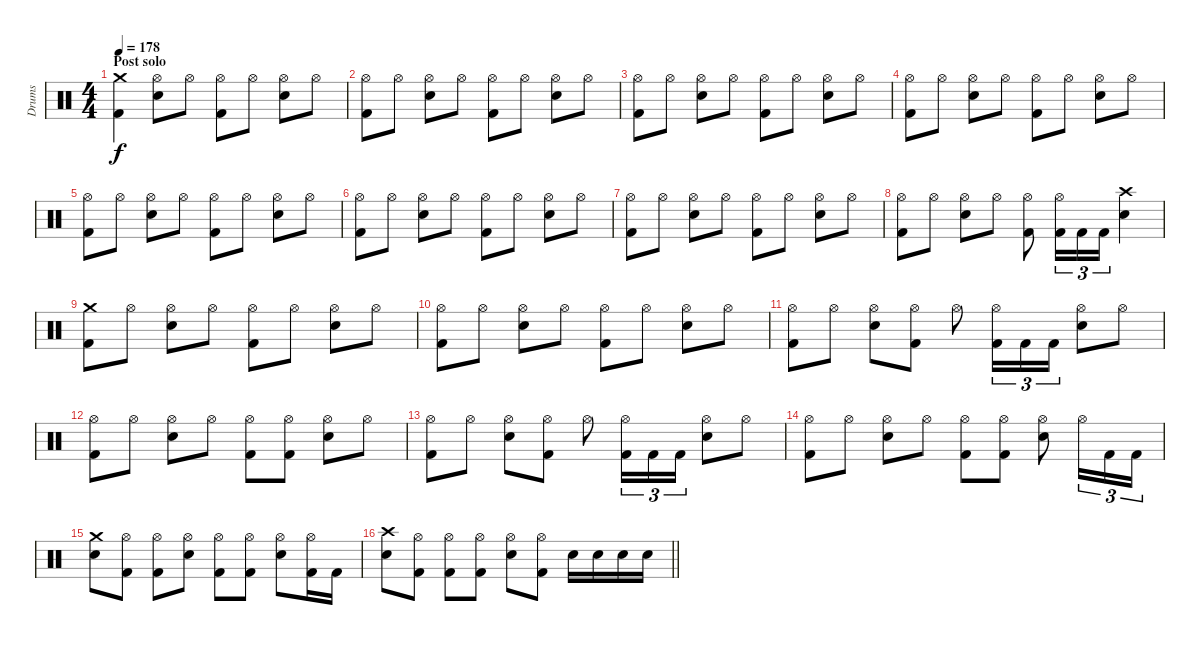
\track ("Drums" "Drums") {instrument percussion}
\staff {score}
\articulation defaults
\ts (4 4)
\section ("" "Post solo")
\tempo 178
\clef neutral
\ks c
("Crash medium (hit)" "Kick (hit) 2").4{dy f} ("Hi-Hat (open)" "Electric Snare (hit)").8 "Hi-Hat (open)".8 ("Hi-Hat (open)" "Kick (hit) 2").8 "Hi-Hat (open)".8 ("Hi-Hat (open)" "Electric Snare (hit)").8 "Hi-Hat (open)".8 |
("Hi-Hat (open)" "Kick (hit) 2").8 "Hi-Hat (open)".8 ("Hi-Hat (open)" "Electric Snare (hit)").8 "Hi-Hat (open)".8 ("Hi-Hat (open)" "Kick (hit) 2").8 "Hi-Hat (open)".8 ("Hi-Hat (open)" "Electric Snare (hit)").8 "Hi-Hat (open)".8 |
("Hi-Hat (open)" "Kick (hit) 2").8 "Hi-Hat (open)".8 ("Hi-Hat (open)" "Electric Snare (hit)").8 "Hi-Hat (open)".8 ("Hi-Hat (open)" "Kick (hit) 2").8 "Hi-Hat (open)".8 ("Hi-Hat (open)" "Electric Snare (hit)").8 "Hi-Hat (open)".8 |
("Hi-Hat (open)" "Kick (hit) 2").8 "Hi-Hat (open)".8 ("Hi-Hat (open)" "Electric Snare (hit)").8 "Hi-Hat (open)".8 ("Hi-Hat (open)" "Kick (hit) 2").8 "Hi-Hat (open)".8 ("Hi-Hat (open)" "Electric Snare (hit)").8 "Hi-Hat (open)".8 |
("Hi-Hat (open)" "Kick (hit) 2").8 "Hi-Hat (open)".8 ("Hi-Hat (open)" "Electric Snare (hit)").8 "Hi-Hat (open)".8 ("Hi-Hat (open)" "Kick (hit) 2").8 "Hi-Hat (open)".8 ("Hi-Hat (open)" "Electric Snare (hit)").8 "Hi-Hat (open)".8 |
("Hi-Hat (open)" "Kick (hit) 2").8 "Hi-Hat (open)".8 ("Hi-Hat (open)" "Electric Snare (hit)").8 "Hi-Hat (open)".8 ("Hi-Hat (open)" "Kick (hit) 2").8 "Hi-Hat (open)".8 ("Hi-Hat (open)" "Electric Snare (hit)").8 "Hi-Hat (open)".8 |
("Hi-Hat (open)" "Kick (hit) 2").8 "Hi-Hat (open)".8 ("Hi-Hat (open)" "Electric Snare (hit)").8 "Hi-Hat (open)".8 ("Hi-Hat (open)" "Kick (hit) 2").8 "Hi-Hat (open)".8 ("Hi-Hat (open)" "Electric Snare (hit)").8 "Hi-Hat (open)".8 |
("Hi-Hat (open)" "Kick (hit) 2").8 "Hi-Hat (open)".8 ("Hi-Hat (open)" "Electric Snare (hit)").8 "Hi-Hat (open)".8 ("Hi-Hat (open)" "Kick (hit) 2").8 ("Hi-Hat (open)" "Kick (hit) 2").16{tu (3 2)} "Kick (hit) 2".16{tu (3 2)} "Kick (hit) 2".16{tu (3 2)} ("Crash high (hit)" "Electric Snare (hit)").4 |
("Crash medium (hit)" "Kick (hit) 2").8 "Hi-Hat (open)".8 ("Hi-Hat (open)" "Electric Snare (hit)").8 "Hi-Hat (open)".8 ("Hi-Hat (open)" "Kick (hit) 2").8 "Hi-Hat (open)".8 ("Hi-Hat (open)" "Electric Snare (hit)").8 "Hi-Hat (open)".8 |
("Hi-Hat (open)" "Kick (hit) 2").8 "Hi-Hat (open)".8 ("Hi-Hat (open)" "Electric Snare (hit)").8 "Hi-Hat (open)".8 ("Hi-Hat (open)" "Kick (hit) 2").8 "Hi-Hat (open)".8 ("Hi-Hat (open)" "Electric Snare (hit)").8 "Hi-Hat (open)".8 |
("Hi-Hat (open)" "Kick (hit) 2").8 "Hi-Hat (open)".8 ("Hi-Hat (open)" "Electric Snare (hit)").8 ("Hi-Hat (open)" "Kick (hit) 2").8 "Hi-Hat (open)".8 ("Hi-Hat (open)" "Kick (hit) 2").16{tu (3 2)} "Kick (hit) 2".16{tu (3 2)} "Kick (hit) 2".16{tu (3 2)} ("Hi-Hat (open)" "Electric Snare (hit)").8 "Hi-Hat (open)".8 |
("Hi-Hat (open)" "Kick (hit) 2").8 "Hi-Hat (open)".8 ("Hi-Hat (open)" "Electric Snare (hit)").8 "Hi-Hat (open)".8 ("Hi-Hat (open)" "Kick (hit) 2").8 ("Hi-Hat (open)" "Kick (hit) 2").8 ("Hi-Hat (open)" "Electric Snare (hit)").8 "Hi-Hat (open)".8 |
("Hi-Hat (open)" "Kick (hit) 2").8 "Hi-Hat (open)".8 ("Hi-Hat (open)" "Electric Snare (hit)").8 ("Hi-Hat (open)" "Kick (hit) 2").8 "Hi-Hat (open)".8 ("Hi-Hat (open)" "Kick (hit) 2").16{tu (3 2)} "Kick (hit) 2".16{tu (3 2)} "Kick (hit) 2".16{tu (3 2)} ("Hi-Hat (open)" "Electric Snare (hit)").8 "Hi-Hat (open)".8 |
("Hi-Hat (open)" "Kick (hit) 2").8 "Hi-Hat (open)".8 ("Hi-Hat (open)" "Electric Snare (hit)").8 "Hi-Hat (open)".8 ("Hi-Hat (open)" "Kick (hit) 2").8 ("Hi-Hat (open)" "Kick (hit) 2").8 ("Hi-Hat (open)" "Electric Snare (hit)").8 "Hi-Hat (open)".16{tu (3 2)} "Kick (hit) 2".16{tu (3 2)} "Kick (hit) 2".16{tu (3 2)} |
("Crash medium (hit)" "Electric Snare (hit)").8 ("Hi-Hat (open)" "Kick (hit) 2").8 ("Hi-Hat (open)" "Kick (hit) 2").8 ("Hi-Hat (open)" "Electric Snare (hit)").8 ("Hi-Hat (open)" "Kick (hit) 2").8 ("Hi-Hat (open)" "Kick (hit) 2").8 ("Hi-Hat (open)" "Electric Snare (hit)").8 ("Hi-Hat (open)" "Kick (hit) 2").16 "Kick (hit) 2".16 |
\barLineRight lightlight
("Crash high (hit)" "Electric Snare (hit)").8 ("Hi-Hat (open)" "Kick (hit) 2").8 ("Hi-Hat (open)" "Kick (hit) 2").8 ("Hi-Hat (open)" "Kick (hit) 2").8 ("Hi-Hat (open)" "Electric Snare (hit)").8 ("Hi-Hat (open)" "Kick (hit) 2").8 "Electric Snare (hit)".16 "Electric Snare (hit)".16 "Electric Snare (hit)".16 "Electric Snare (hit)".16
